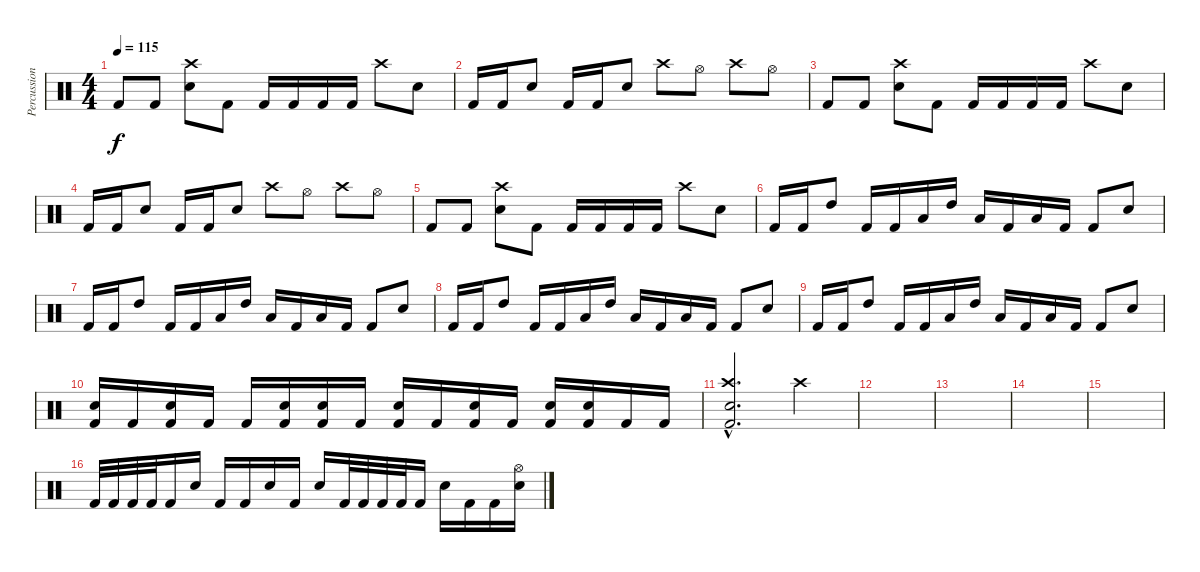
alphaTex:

\track ("Percussioni" "Percussion") {instrument percussion}
\staff {score}
\articulation defaults
\ts (4 4)
\tempo 115
\clef neutral
\ks c "Kick (hit) 2".8{dy f} "Kick (hit) 2".8
("Crash high (hit)" "Electric Snare (hit)").8 "Kick (hit) 2".8 "Kick (hit) 2".16 "Kick (hit) 2".16 "Kick (hit) 2".16 "Kick (hit) 2".16 "Crash high (hit)".8 "Electric Snare (hit)".8 |
"Kick (hit) 2".16 "Kick (hit) 2".16 "Electric Snare (hit)".8 "Kick (hit) 2".16 "Kick (hit) 2".16 "Electric Snare (hit)".8 "Crash high (hit)".8 "Hi-Hat (open)".8 "Crash high (hit)".8 "Hi-Hat (open)".8 |
"Kick (hit) 2".8 "Kick (hit) 2".8 ("Crash high (hit)" "Electric Snare (hit)").8 "Kick (hit) 2".8 "Kick (hit) 2".16 "Kick (hit) 2".16 "Kick (hit) 2".16 "Kick (hit) 2".16 "Crash high (hit)".8 "Electric Snare (hit)".8 |
"Kick (hit) 2".16 "Kick (hit) 2".16 "Electric Snare (hit)".8 "Kick (hit) 2".16 "Kick (hit) 2".16 "Electric Snare (hit)".8 "Crash high (hit)".8 "Hi-Hat (open)".8 "Crash high (hit)".8 "Hi-Hat (open)".8 |
"Kick (hit) 2".8 "Kick (hit) 2".8 ("Crash high (hit)" "Electric Snare (hit)").8 "Kick (hit) 2".8 "Kick (hit) 2".16 "Kick (hit) 2".16 "Kick (hit) 2".16 "Kick (hit) 2".16 "Crash high (hit)".8 "Electric Snare (hit)".8 |
"Kick (hit) 2".16 "Kick (hit) 2".16 "High Tom (hit)".8 "Kick (hit) 2".16 "Kick (hit) 2".16 "Low Tom (hit)".16 "High Tom (hit)".16 "Low Tom (hit)".16 "Kick (hit) 2".16 "Low Tom (hit)".16 "Kick (hit) 2".16 "Kick (hit) 2".8 "Electric Snare (hit)".8 |
"Kick (hit) 2".16 "Kick (hit) 2".16 "High Tom (hit)".8 "Kick (hit) 2".16 "Kick (hit) 2".16 "Low Tom (hit)".16 "High Tom (hit)".16 "Low Tom (hit)".16 "Kick (hit) 2".16 "Low Tom (hit)".16 "Kick (hit) 2".16 "Kick (hit) 2".8 "Electric Snare (hit)".8 |
"Kick (hit) 2".16 "Kick (hit) 2".16 "High Tom (hit)".8 "Kick (hit) 2".16 "Kick (hit) 2".16 "Low Tom (hit)".16 "High Tom (hit)".16 "Low Tom (hit)".16 "Kick (hit) 2".16 "Low Tom (hit)".16 "Kick (hit) 2".16 "Kick (hit) 2".8 "Electric Snare (hit)".8 |
"Kick (hit) 2".16 "Kick (hit) 2".16 "High Tom (hit)".8 "Kick (hit) 2".16 "Kick (hit) 2".16 "Low Tom (hit)".16 "High Tom (hit)".16 "Low Tom (hit)".16 "Kick (hit) 2".16 "Low Tom (hit)".16 "Kick (hit) 2".16 "Kick (hit) 2".8 "Electric Snare (hit)".8 |
("Electric Snare (hit)" "Kick (hit) 2").16 "Kick (hit) 2".16 ("Electric Snare (hit)" "Kick (hit) 2").16 "Kick (hit) 2".16 "Kick (hit) 2".16 ("Electric Snare (hit)" "Kick (hit) 2").16 ("Electric Snare (hit)" "Kick (hit) 2").16 "Kick (hit) 2".16 ("Electric Snare (hit)" "Kick (hit) 2").16 "Kick (hit) 2".16 ("Electric Snare (hit)" "Kick (hit) 2").16 "Kick (hit) 2".16 ("Electric Snare (hit)" "Kick (hit) 2").16 ("Electric Snare (hit)" "Kick (hit) 2").16 "Kick (hit) 2".16 "Kick (hit) 2".16 |
("Crash high (hit)"{hac} "Electric Snare (hit)"{hac} "Kick (hit) 2"{hac}).2{d} "Crash high (hit)".4 |
|
|
|
|
"Kick (hit) 2".32 "Kick (hit) 2".32 "Kick (hit) 2".32 "Kick (hit) 2".32 "Kick (hit) 2".16 "Electric Snare (hit)".16 "Kick (hit) 2".16 "Kick (hit) 2".16 "Electric Snare (hit)".16 "Kick (hit) 2".16 "Electric Snare (hit)".16 "Kick (hit) 2".32 "Kick (hit) 2".32 "Kick (hit) 2".32 "Kick (hit) 2".32 "Kick (hit) 2".16 "Electric Snare (hit)".16 "Kick (hit) 2".16 "Kick (hit) 2".16 ("Hi-Hat (open)" "Electric Snare (hit)").16
